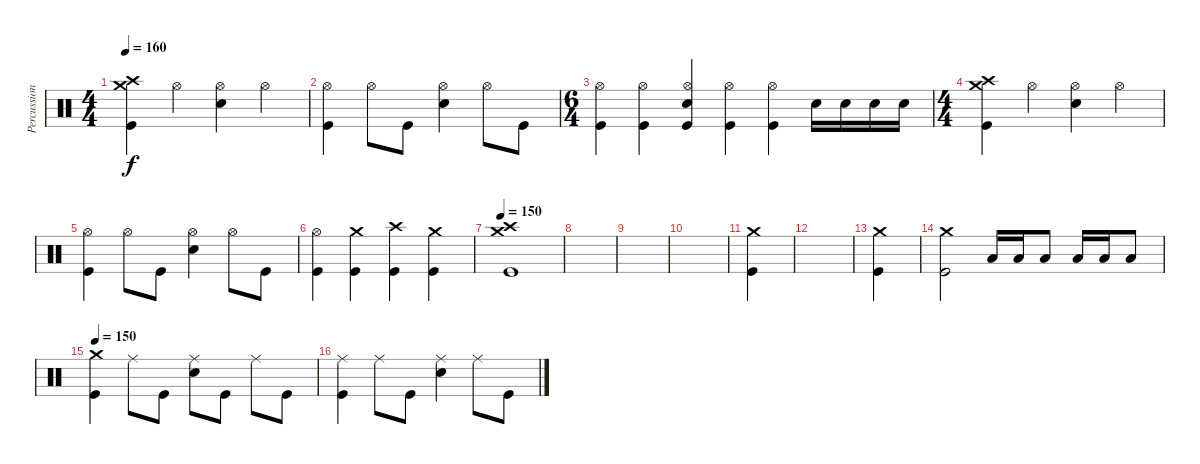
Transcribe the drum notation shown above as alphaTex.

\track ("Percussion" "Percussion") {instrument percussion}
\staff {score}
\articulation defaults
\ts (4 4)
\tempo 160
\clef neutral
\ks c
("Crash medium (hit)" "Crash high (hit)" "Kick (hit)").4{dy f} "Hi-Hat (open)".4 ("Hi-Hat (open)" "Snare (hit) 2").4 "Hi-Hat (open)".4 |
("Hi-Hat (open)" "Kick (hit)").4 "Hi-Hat (open)".8 "Kick (hit)".8 ("Hi-Hat (open)" "Snare (hit) 2").4 "Hi-Hat (open)".8 "Kick (hit)".8 |
\ts (6 4)
("Hi-Hat (open)" "Kick (hit)").4 ("Hi-Hat (open)" "Kick (hit)").4 ("Hi-Hat (open)" "Snare (hit) 2" "Kick (hit)").4 ("Hi-Hat (open)" "Kick (hit)").4 ("Hi-Hat (open)" "Kick (hit)").4 "Snare (hit) 2".16 "Snare (hit) 2".16 "Snare (hit) 2".16 "Snare (hit) 2".16 |
\ts (4 4)
("Crash medium (hit)" "Crash high (hit)" "Kick (hit)").4 "Hi-Hat (open)".4 ("Hi-Hat (open)" "Snare (hit) 2").4 "Hi-Hat (open)".4 |
("Hi-Hat (open)" "Kick (hit)").4 "Hi-Hat (open)".8 "Kick (hit)".8 ("Hi-Hat (open)" "Snare (hit) 2").4 "Hi-Hat (open)".8 "Kick (hit)".8 |
("Hi-Hat (open)" "Kick (hit)").4 ("Crash medium (hit)" "Kick (hit)").4 ("Crash high (hit)" "Kick (hit)").4 ("Crash medium (hit)" "Kick (hit)").4 |
\tempo 150
("Crash high (hit)" "Crash medium (hit)" "Kick (hit)").1 |
|
|
|
("Crash medium (hit)" "Kick (hit)").4 |
|
("Crash medium (hit)" "Kick (hit)").4 |
("Crash medium (hit)" "Kick (hit)").2 "Low Tom (hit)".16 "Low Tom (hit)".16 "Low Tom (hit)".8 "Low Floor Tom (hit)".16 "Low Floor Tom (hit)".16 "Low Floor Tom (hit)".8 |
\tempo 150
("Crash medium (hit)" "Kick (hit)").4 "Ride (middle)".8 "Kick (hit)".8 ("Ride (middle)" "Snare (hit) 2").8 "Kick (hit)".8 "Ride (middle)".8 "Kick (hit)".8 |
("Ride (middle)" "Kick (hit)").4 "Ride (middle)".8 "Kick (hit)".8 ("Ride (middle)" "Snare (hit) 2").4 "Ride (middle)".8 "Kick (hit)".8
